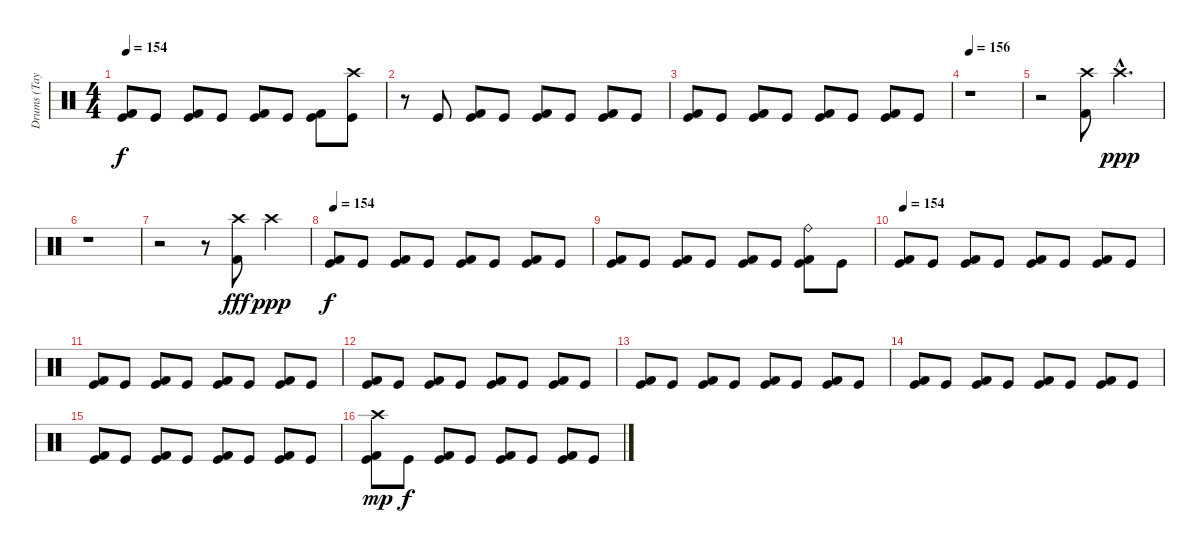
\track ("Drums (Taylor)" "Drums (Tay") {instrument percussion}
\staff {score}
\articulation defaults
\ts (4 4)
\tempo 154
\clef neutral
\ks c
("Kick (hit) 2" "Kick (hit)").8{dy f} "Kick (hit)".8 ("Kick (hit) 2" "Kick (hit)").8 "Kick (hit)".8 ("Kick (hit) 2" "Kick (hit)").8 "Kick (hit)".8 ("Kick (hit) 2" "Kick (hit)").8 ("Kick (hit)" "Crash high (hit)").8 |
r.8 "Kick (hit)".8 ("Kick (hit) 2" "Kick (hit)").8 "Kick (hit)".8 ("Kick (hit) 2" "Kick (hit)").8 "Kick (hit)".8 ("Kick (hit) 2" "Kick (hit)").8 "Kick (hit)".8 |
("Kick (hit) 2" "Kick (hit)").8 "Kick (hit)".8 ("Kick (hit) 2" "Kick (hit)").8 "Kick (hit)".8 ("Kick (hit) 2" "Kick (hit)").8 "Kick (hit)".8 ("Kick (hit) 2" "Kick (hit)").8 "Kick (hit)".8 |
\tempo 156
r.1 |
r.2 ("Kick (hit) 2" "Crash high (hit)").8{volume 16} "Crash high (hit)"{hac}.4{d dy ppp volume 0} |
r.1 |
r.2 r.8{volume 16} ("Kick (hit) 2" "Crash high (hit)").8{dy fff volume 16} "Crash high (hit)".4{dy ppp volume 0} |
\tempo 154
("Kick (hit) 2" "Kick (hit)").8{dy f volume 16} "Kick (hit)".8 ("Kick (hit) 2" "Kick (hit)").8 "Kick (hit)".8 ("Kick (hit) 2" "Kick (hit)").8 "Kick (hit)".8 ("Kick (hit) 2" "Kick (hit)").8 "Kick (hit)".8 |
("Kick (hit) 2" "Kick (hit)").8 "Kick (hit)".8 ("Kick (hit) 2" "Kick (hit)").8 "Kick (hit)".8 ("Kick (hit) 2" "Kick (hit)").8 "Kick (hit)".8 ("Kick (hit) 2" "Kick (hit)" "Ride (bell)").8 "Kick (hit)".8 |
\tempo 154
("Kick (hit) 2" "Kick (hit)").8 "Kick (hit)".8 ("Kick (hit) 2" "Kick (hit)").8 "Kick (hit)".8 ("Kick (hit) 2" "Kick (hit)").8 "Kick (hit)".8 ("Kick (hit) 2" "Kick (hit)").8 "Kick (hit)".8 |
("Kick (hit) 2" "Kick (hit)").8 "Kick (hit)".8 ("Kick (hit) 2" "Kick (hit)").8 "Kick (hit)".8 ("Kick (hit) 2" "Kick (hit)").8 "Kick (hit)".8 ("Kick (hit) 2" "Kick (hit)").8 "Kick (hit)".8 |
("Kick (hit) 2" "Kick (hit)").8 "Kick (hit)".8 ("Kick (hit) 2" "Kick (hit)").8 "Kick (hit)".8 ("Kick (hit) 2" "Kick (hit)").8 "Kick (hit)".8 ("Kick (hit) 2" "Kick (hit)").8 "Kick (hit)".8 |
("Kick (hit) 2" "Kick (hit)").8 "Kick (hit)".8 ("Kick (hit) 2" "Kick (hit)").8 "Kick (hit)".8 ("Kick (hit) 2" "Kick (hit)").8 "Kick (hit)".8 ("Kick (hit) 2" "Kick (hit)").8 "Kick (hit)".8 |
("Kick (hit) 2" "Kick (hit)").8 "Kick (hit)".8 ("Kick (hit) 2" "Kick (hit)").8 "Kick (hit)".8 ("Kick (hit) 2" "Kick (hit)").8 "Kick (hit)".8 ("Kick (hit) 2" "Kick (hit)").8 "Kick (hit)".8 |
("Kick (hit) 2" "Kick (hit)").8 "Kick (hit)".8 ("Kick (hit) 2" "Kick (hit)").8 "Kick (hit)".8 ("Kick (hit) 2" "Kick (hit)").8 "Kick (hit)".8 ("Kick (hit) 2" "Kick (hit)").8 "Kick (hit)".8 |
("Kick (hit) 2" "Kick (hit)" "Crash high (hit)").8{dy mp} "Kick (hit)".8{dy f} ("Kick (hit) 2" "Kick (hit)").8 "Kick (hit)".8 ("Kick (hit) 2" "Kick (hit)").8 "Kick (hit)".8 ("Kick (hit) 2" "Kick (hit)").8 "Kick (hit)".8
